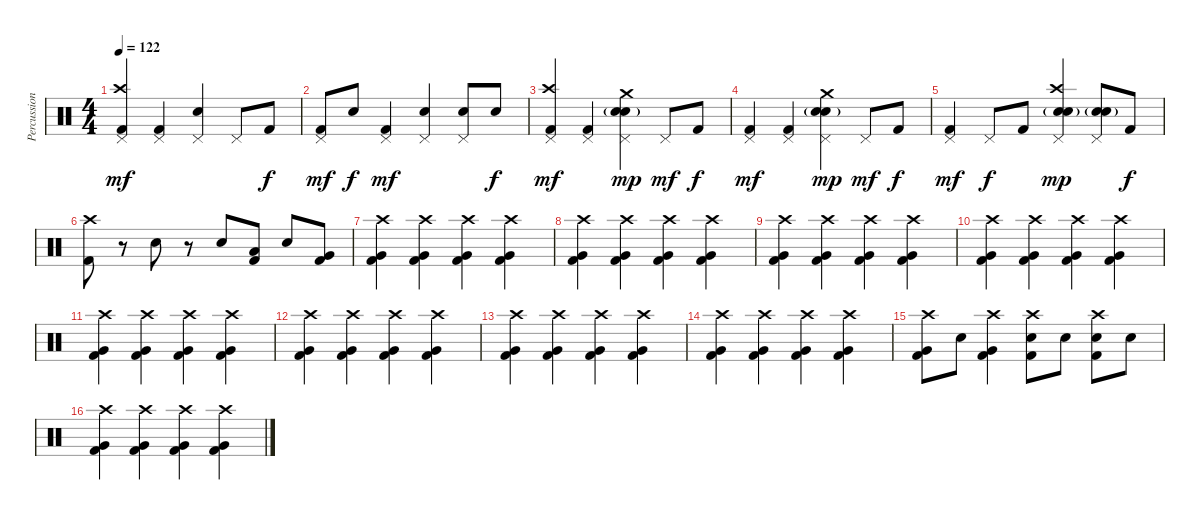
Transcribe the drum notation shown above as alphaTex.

\track ("Percussion" "Percussion") {instrument percussion}
\staff {score}
\articulation defaults
\ts (4 4)
\tempo 122
\clef neutral
\ks c
("Pedal Hi-Hat (hit)" "Crash high (hit)" "Kick (hit) 2").4{dy mf} ("Pedal Hi-Hat (hit)" "Kick (hit) 2").4 ("Pedal Hi-Hat (hit)" "Electric Snare (hit)").4 "Pedal Hi-Hat (hit)".8 "Kick (hit) 2".8{dy f} |
("Pedal Hi-Hat (hit)" "Kick (hit) 2").8{dy mf} "Snare (hit) 2".8{dy f} ("Pedal Hi-Hat (hit)" "Kick (hit) 2").4{dy mf} ("Pedal Hi-Hat (hit)" "Snare (hit) 2").4 ("Pedal Hi-Hat (hit)" "Electric Snare (hit)").8 "Electric Snare (hit)".8{dy f} |
("Pedal Hi-Hat (hit)" "Crash high (hit)" "Kick (hit) 2").4{dy mf} ("Pedal Hi-Hat (hit)" "Kick (hit) 2").4 ("Pedal Hi-Hat (hit)" "Crash medium (hit)" "Electric Snare (hit)" "Snare (hit) 2"{g}).4{dy mp} "Pedal Hi-Hat (hit)".8{dy mf} "Kick (hit) 2".8{dy f} |
("Pedal Hi-Hat (hit)" "Kick (hit) 2").4{dy mf} ("Pedal Hi-Hat (hit)" "Kick (hit) 2").4 ("Pedal Hi-Hat (hit)" "Crash medium (hit)" "Electric Snare (hit)" "Snare (hit) 2"{g}).4{dy mp} "Pedal Hi-Hat (hit)".8{dy mf} "Kick (hit) 2".8{dy f} |
("Pedal Hi-Hat (hit)" "Kick (hit) 2").4{dy mf} "Pedal Hi-Hat (hit)".8{dy f} "Kick (hit) 2".8 ("Pedal Hi-Hat (hit)" "Crash high (hit)" "Electric Snare (hit)" "Snare (hit) 2"{g}).4{dy mp} ("Pedal Hi-Hat (hit)" "Electric Snare (hit)" "Snare (hit) 2"{g}).8 "Kick (hit) 2".8{dy f} |
("Crash high (hit)" "Kick (hit) 2").8 r.8 "Snare (hit) 2".8 r.8 "Snare (hit) 2".8 ("Low Tom (hit)" "Kick (hit) 2").8 "Snare (hit) 2".8 ("Very Low Tom (hit)" "Kick (hit) 2").8 |
("Crash high (hit)" "Very Low Tom (hit)" "Kick (hit) 2").4 ("Crash high (hit)" "Very Low Tom (hit)" "Kick (hit) 2").4 ("Crash high (hit)" "Very Low Tom (hit)" "Kick (hit) 2").4 ("Crash high (hit)" "Very Low Tom (hit)" "Kick (hit) 2").4 |
("Crash high (hit)" "Very Low Tom (hit)" "Kick (hit) 2").4 ("Crash high (hit)" "Very Low Tom (hit)" "Kick (hit) 2").4 ("Crash high (hit)" "Very Low Tom (hit)" "Kick (hit) 2").4 ("Crash high (hit)" "Very Low Tom (hit)" "Kick (hit) 2").4 |
("Crash high (hit)" "Very Low Tom (hit)" "Kick (hit) 2").4 ("Crash high (hit)" "Very Low Tom (hit)" "Kick (hit) 2").4 ("Crash high (hit)" "Very Low Tom (hit)" "Kick (hit) 2").4 ("Crash high (hit)" "Very Low Tom (hit)" "Kick (hit) 2").4 |
("Crash high (hit)" "Very Low Tom (hit)" "Kick (hit) 2").4 ("Crash high (hit)" "Very Low Tom (hit)" "Kick (hit) 2").4 ("Crash high (hit)" "Very Low Tom (hit)" "Kick (hit) 2").4 ("Crash high (hit)" "Very Low Tom (hit)" "Kick (hit) 2").4 |
("Crash high (hit)" "Very Low Tom (hit)" "Kick (hit) 2").4 ("Crash high (hit)" "Very Low Tom (hit)" "Kick (hit) 2").4 ("Crash high (hit)" "Very Low Tom (hit)" "Kick (hit) 2").4 ("Crash high (hit)" "Very Low Tom (hit)" "Kick (hit) 2").4 |
("Crash high (hit)" "Very Low Tom (hit)" "Kick (hit) 2").4 ("Crash high (hit)" "Very Low Tom (hit)" "Kick (hit) 2").4 ("Crash high (hit)" "Very Low Tom (hit)" "Kick (hit) 2").4 ("Crash high (hit)" "Very Low Tom (hit)" "Kick (hit) 2").4 |
("Crash high (hit)" "Very Low Tom (hit)" "Kick (hit) 2").4 ("Crash high (hit)" "Very Low Tom (hit)" "Kick (hit) 2").4 ("Crash high (hit)" "Very Low Tom (hit)" "Kick (hit) 2").4 ("Crash high (hit)" "Very Low Tom (hit)" "Kick (hit) 2").4 |
("Crash high (hit)" "Very Low Tom (hit)" "Kick (hit) 2").4 ("Crash high (hit)" "Very Low Tom (hit)" "Kick (hit) 2").4 ("Crash high (hit)" "Very Low Tom (hit)" "Kick (hit) 2").4 ("Crash high (hit)" "Very Low Tom (hit)" "Kick (hit) 2").4 |
("Crash high (hit)" "Very Low Tom (hit)" "Kick (hit) 2").8 "Electric Snare (hit)".8 ("Crash high (hit)" "Very Low Tom (hit)" "Kick (hit) 2").4 ("Crash high (hit)" "Electric Snare (hit)" "Kick (hit) 2").8 "Electric Snare (hit)".8 ("Crash high (hit)" "Electric Snare (hit)" "Kick (hit) 2").8 "Electric Snare (hit)".8 |
("Crash high (hit)" "Very Low Tom (hit)" "Kick (hit) 2").4 ("Crash high (hit)" "Very Low Tom (hit)" "Kick (hit) 2").4 ("Crash high (hit)" "Very Low Tom (hit)" "Kick (hit) 2").4 ("Crash high (hit)" "Very Low Tom (hit)" "Kick (hit) 2").4
